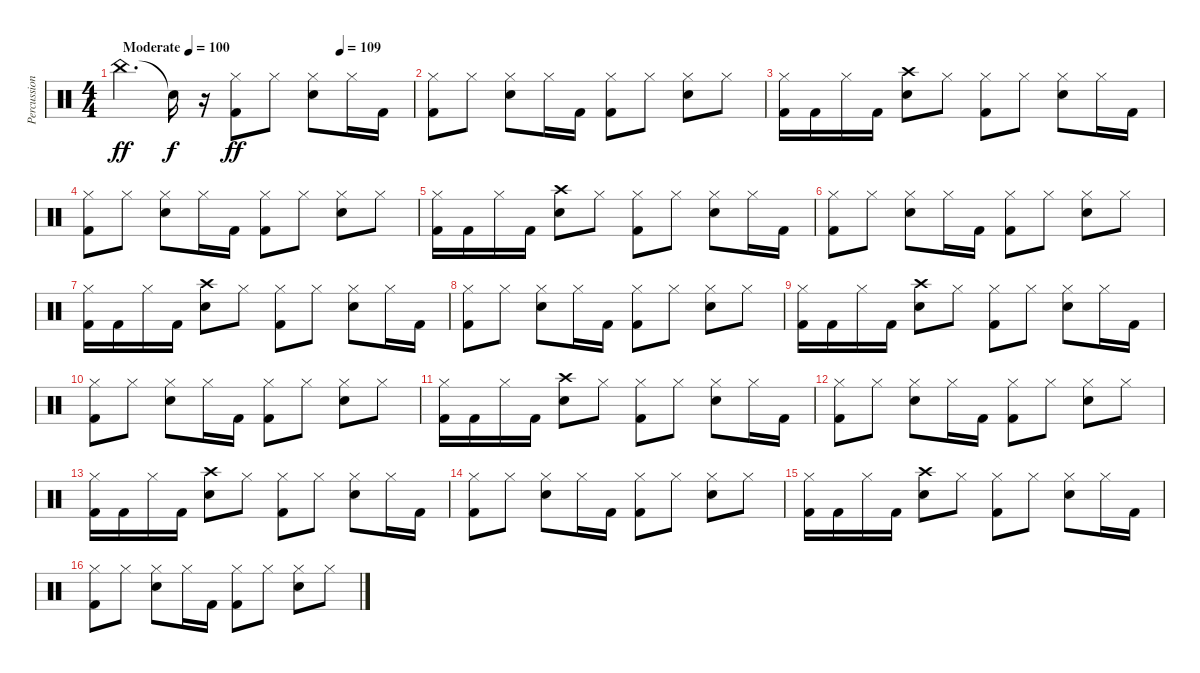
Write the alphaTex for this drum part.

\track ("Percussion" "Percussion") {instrument percussion}
\staff {score}
\articulation defaults
\ts (4 4)
\tempo (100 "Moderate")
\tempo (109 0.75)
\tempo (100 "Moderate")
\clef neutral
\ks c "China (hit)".4{d dy ff} "Snare (hit)"{t}.16{dy f}
r.16 ("Kick (hit) 2" "Hi-Hat (closed)").8{dy ff} "Hi-Hat (closed)".8 ("Electric Snare (hit)" "Hi-Hat (closed)").8 "Hi-Hat (closed)".16 "Kick (hit) 2".16 |
("Kick (hit) 2" "Hi-Hat (closed)").8 "Hi-Hat (closed)".8 ("Electric Snare (hit)" "Hi-Hat (closed)").8 "Hi-Hat (closed)".16 "Kick (hit) 2".16 ("Kick (hit) 2" "Hi-Hat (closed)").8 "Hi-Hat (closed)".8 ("Electric Snare (hit)" "Hi-Hat (closed)").8 "Hi-Hat (closed)".8 |
("Kick (hit) 2" "Hi-Hat (closed)").16 "Kick (hit) 2".16 "Hi-Hat (closed)".16 "Kick (hit) 2".16 ("Electric Snare (hit)" "Crash high (hit)").8 "Hi-Hat (closed)".8 ("Kick (hit) 2" "Hi-Hat (closed)").8 "Hi-Hat (closed)".8 ("Electric Snare (hit)" "Hi-Hat (closed)").8 "Hi-Hat (closed)".16 "Kick (hit) 2".16 |
("Kick (hit) 2" "Hi-Hat (closed)").8 "Hi-Hat (closed)".8 ("Electric Snare (hit)" "Hi-Hat (closed)").8 "Hi-Hat (closed)".16 "Kick (hit) 2".16 ("Kick (hit) 2" "Hi-Hat (closed)").8 "Hi-Hat (closed)".8 ("Electric Snare (hit)" "Hi-Hat (closed)").8 "Hi-Hat (closed)".8 |
("Kick (hit) 2" "Hi-Hat (closed)").16 "Kick (hit) 2".16 "Hi-Hat (closed)".16 "Kick (hit) 2".16 ("Electric Snare (hit)" "Crash high (hit)").8 "Hi-Hat (closed)".8 ("Kick (hit) 2" "Hi-Hat (closed)").8 "Hi-Hat (closed)".8 ("Electric Snare (hit)" "Hi-Hat (closed)").8 "Hi-Hat (closed)".16 "Kick (hit) 2".16 |
("Kick (hit) 2" "Hi-Hat (closed)").8 "Hi-Hat (closed)".8 ("Electric Snare (hit)" "Hi-Hat (closed)").8 "Hi-Hat (closed)".16 "Kick (hit) 2".16 ("Kick (hit) 2" "Hi-Hat (closed)").8 "Hi-Hat (closed)".8 ("Electric Snare (hit)" "Hi-Hat (closed)").8 "Hi-Hat (closed)".8 |
("Kick (hit) 2" "Hi-Hat (closed)").16 "Kick (hit) 2".16 "Hi-Hat (closed)".16 "Kick (hit) 2".16 ("Electric Snare (hit)" "Crash high (hit)").8 "Hi-Hat (closed)".8 ("Kick (hit) 2" "Hi-Hat (closed)").8 "Hi-Hat (closed)".8 ("Electric Snare (hit)" "Hi-Hat (closed)").8 "Hi-Hat (closed)".16 "Kick (hit) 2".16 |
("Kick (hit) 2" "Hi-Hat (closed)").8 "Hi-Hat (closed)".8 ("Electric Snare (hit)" "Hi-Hat (closed)").8 "Hi-Hat (closed)".16 "Kick (hit) 2".16 ("Kick (hit) 2" "Hi-Hat (closed)").8 "Hi-Hat (closed)".8 ("Electric Snare (hit)" "Hi-Hat (closed)").8 "Hi-Hat (closed)".8 |
("Kick (hit) 2" "Hi-Hat (closed)").16 "Kick (hit) 2".16 "Hi-Hat (closed)".16 "Kick (hit) 2".16 ("Electric Snare (hit)" "Crash high (hit)").8 "Hi-Hat (closed)".8 ("Kick (hit) 2" "Hi-Hat (closed)").8 "Hi-Hat (closed)".8 ("Electric Snare (hit)" "Hi-Hat (closed)").8 "Hi-Hat (closed)".16 "Kick (hit) 2".16 |
("Kick (hit) 2" "Hi-Hat (closed)").8 "Hi-Hat (closed)".8 ("Electric Snare (hit)" "Hi-Hat (closed)").8 "Hi-Hat (closed)".16 "Kick (hit) 2".16 ("Kick (hit) 2" "Hi-Hat (closed)").8 "Hi-Hat (closed)".8 ("Electric Snare (hit)" "Hi-Hat (closed)").8 "Hi-Hat (closed)".8 |
("Kick (hit) 2" "Hi-Hat (closed)").16 "Kick (hit) 2".16 "Hi-Hat (closed)".16 "Kick (hit) 2".16 ("Electric Snare (hit)" "Crash high (hit)").8 "Hi-Hat (closed)".8 ("Kick (hit) 2" "Hi-Hat (closed)").8 "Hi-Hat (closed)".8 ("Electric Snare (hit)" "Hi-Hat (closed)").8 "Hi-Hat (closed)".16 "Kick (hit) 2".16 |
("Kick (hit) 2" "Hi-Hat (closed)").8 "Hi-Hat (closed)".8 ("Electric Snare (hit)" "Hi-Hat (closed)").8 "Hi-Hat (closed)".16 "Kick (hit) 2".16 ("Kick (hit) 2" "Hi-Hat (closed)").8 "Hi-Hat (closed)".8 ("Electric Snare (hit)" "Hi-Hat (closed)").8 "Hi-Hat (closed)".8 |
("Kick (hit) 2" "Hi-Hat (closed)").16 "Kick (hit) 2".16 "Hi-Hat (closed)".16 "Kick (hit) 2".16 ("Electric Snare (hit)" "Crash high (hit)").8 "Hi-Hat (closed)".8 ("Kick (hit) 2" "Hi-Hat (closed)").8 "Hi-Hat (closed)".8 ("Electric Snare (hit)" "Hi-Hat (closed)").8 "Hi-Hat (closed)".16 "Kick (hit) 2".16 |
("Kick (hit) 2" "Hi-Hat (closed)").8 "Hi-Hat (closed)".8 ("Electric Snare (hit)" "Hi-Hat (closed)").8 "Hi-Hat (closed)".16 "Kick (hit) 2".16 ("Kick (hit) 2" "Hi-Hat (closed)").8 "Hi-Hat (closed)".8 ("Electric Snare (hit)" "Hi-Hat (closed)").8 "Hi-Hat (closed)".8 |
("Kick (hit) 2" "Hi-Hat (closed)").16 "Kick (hit) 2".16 "Hi-Hat (closed)".16 "Kick (hit) 2".16 ("Electric Snare (hit)" "Crash high (hit)").8 "Hi-Hat (closed)".8 ("Kick (hit) 2" "Hi-Hat (closed)").8 "Hi-Hat (closed)".8 ("Electric Snare (hit)" "Hi-Hat (closed)").8 "Hi-Hat (closed)".16 "Kick (hit) 2".16 |
("Kick (hit) 2" "Hi-Hat (closed)").8 "Hi-Hat (closed)".8 ("Electric Snare (hit)" "Hi-Hat (closed)").8 "Hi-Hat (closed)".16 "Kick (hit) 2".16 ("Kick (hit) 2" "Hi-Hat (closed)").8 "Hi-Hat (closed)".8 ("Electric Snare (hit)" "Hi-Hat (closed)").8 "Hi-Hat (closed)".8
